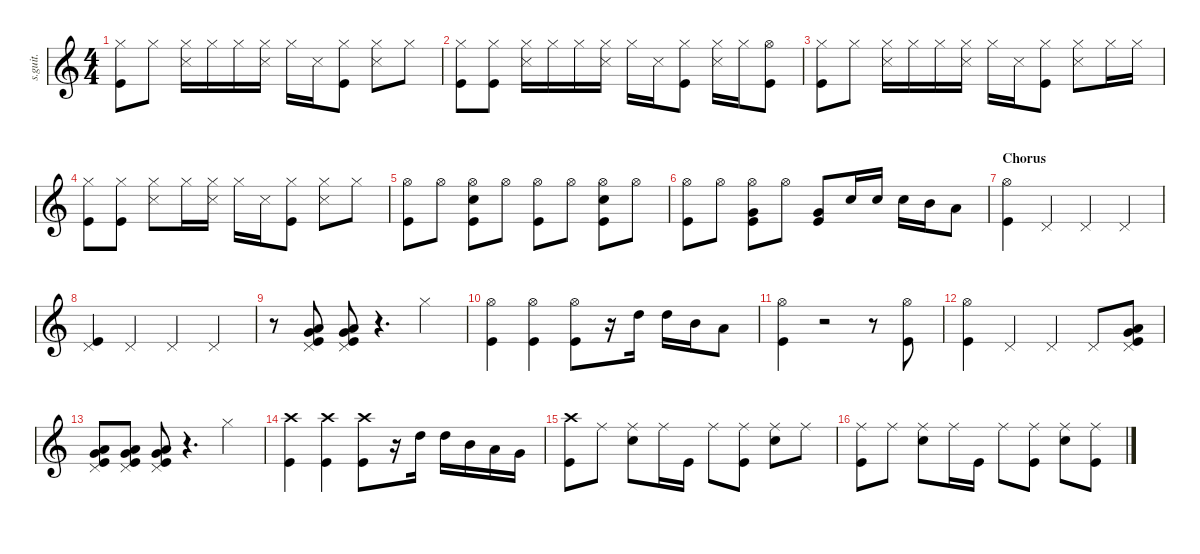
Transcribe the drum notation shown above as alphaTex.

\defaultSystemsLayout 4
\hideDynamics
\bracketExtendMode nobrackets
\track ("Ethan Torchio (Drums)" "s.guit.") {instrument percussion}
\staff {score}
\articulation defaults
\ts (4 4)
\tempo (134 hide)
\clef g2
\ks c
("Hi-Hat (closed)" "Kick (hit)").8{lyrics (0 "") lyrics (1 "") lyrics (2 "") lyrics (3 "") lyrics (4 "") dy ff} "Hi-Hat (closed)".8{lyrics (0 "") lyrics (1 "") lyrics (2 "") lyrics (3 "") lyrics (4 "")} ("Hi-Hat (closed)" "Metronome (hit)").16{lyrics (0 "") lyrics (1 "") lyrics (2 "") lyrics (3 "") lyrics (4 "")} "Hi-Hat (closed)".16{lyrics (0 "") lyrics (1 "") lyrics (2 "") lyrics (3 "") lyrics (4 "")} "Hi-Hat (closed)".16{lyrics (0 "") lyrics (1 "") lyrics (2 "") lyrics (3 "") lyrics (4 "")} ("Hi-Hat (closed)" "Metronome (hit)").16{lyrics (0 "") lyrics (1 "") lyrics (2 "") lyrics (3 "") lyrics (4 "")} "Hi-Hat (closed)".16{lyrics (0 "") lyrics (1 "") lyrics (2 "") lyrics (3 "") lyrics (4 "")} "Metronome (hit)".16{lyrics (0 "") lyrics (1 "") lyrics (2 "") lyrics (3 "") lyrics (4 "")} ("Kick (hit)" "Hi-Hat (closed)").8{lyrics (0 "") lyrics (1 "") lyrics (2 "") lyrics (3 "") lyrics (4 "")} ("Hi-Hat (closed)" "Metronome (hit)").8{lyrics (0 "") lyrics (1 "") lyrics (2 "") lyrics (3 "") lyrics (4 "")} "Hi-Hat (closed)".8{lyrics (0 "") lyrics (1 "") lyrics (2 "") lyrics (3 "") lyrics (4 "")} |
("Hi-Hat (closed)" "Kick (hit)").8{lyrics (0 "") lyrics (1 "") lyrics (2 "") lyrics (3 "") lyrics (4 "")} ("Hi-Hat (closed)" "Kick (hit)").8{lyrics (0 "") lyrics (1 "") lyrics (2 "") lyrics (3 "") lyrics (4 "")} ("Hi-Hat (closed)" "Metronome (hit)").16{lyrics (0 "") lyrics (1 "") lyrics (2 "") lyrics (3 "") lyrics (4 "")} "Hi-Hat (closed)".16{lyrics (0 "") lyrics (1 "") lyrics (2 "") lyrics (3 "") lyrics (4 "")} "Hi-Hat (closed)".16{lyrics (0 "") lyrics (1 "") lyrics (2 "") lyrics (3 "") lyrics (4 "")} ("Hi-Hat (closed)" "Metronome (hit)").16{lyrics (0 "") lyrics (1 "") lyrics (2 "") lyrics (3 "") lyrics (4 "")} "Hi-Hat (closed)".16{lyrics (0 "") lyrics (1 "") lyrics (2 "") lyrics (3 "") lyrics (4 "")} "Metronome (hit)".16{lyrics (0 "") lyrics (1 "") lyrics (2 "") lyrics (3 "") lyrics (4 "")} ("Kick (hit)" "Hi-Hat (closed)").8{lyrics (0 "") lyrics (1 "") lyrics (2 "") lyrics (3 "") lyrics (4 "")} ("Hi-Hat (closed)" "Metronome (hit)").16{lyrics (0 "") lyrics (1 "") lyrics (2 "") lyrics (3 "") lyrics (4 "")} "Hi-Hat (closed)".16{lyrics (0 "") lyrics (1 "") lyrics (2 "") lyrics (3 "") lyrics (4 "")} ("Hi-Hat (open)" "Kick (hit)").8{lyrics (0 "") lyrics (1 "") lyrics (2 "") lyrics (3 "") lyrics (4 "")} |
("Hi-Hat (closed)" "Kick (hit)").8{lyrics (0 "") lyrics (1 "") lyrics (2 "") lyrics (3 "") lyrics (4 "")} "Hi-Hat (closed)".8{lyrics (0 "") lyrics (1 "") lyrics (2 "") lyrics (3 "") lyrics (4 "")} ("Hi-Hat (closed)" "Metronome (hit)").16{lyrics (0 "") lyrics (1 "") lyrics (2 "") lyrics (3 "") lyrics (4 "")} "Hi-Hat (closed)".16{lyrics (0 "") lyrics (1 "") lyrics (2 "") lyrics (3 "") lyrics (4 "")} "Hi-Hat (closed)".16{lyrics (0 "") lyrics (1 "") lyrics (2 "") lyrics (3 "") lyrics (4 "")} ("Hi-Hat (closed)" "Metronome (hit)").16{lyrics (0 "") lyrics (1 "") lyrics (2 "") lyrics (3 "") lyrics (4 "")} "Hi-Hat (closed)".16{lyrics (0 "") lyrics (1 "") lyrics (2 "") lyrics (3 "") lyrics (4 "")} "Metronome (hit)".16{lyrics (0 "") lyrics (1 "") lyrics (2 "") lyrics (3 "") lyrics (4 "")} ("Kick (hit)" "Hi-Hat (closed)").8{lyrics (0 "") lyrics (1 "") lyrics (2 "") lyrics (3 "") lyrics (4 "")} ("Hi-Hat (closed)" "Metronome (hit)").8{lyrics (0 "") lyrics (1 "") lyrics (2 "") lyrics (3 "") lyrics (4 "")} "Hi-Hat (closed)".16{lyrics (0 "") lyrics (1 "") lyrics (2 "") lyrics (3 "") lyrics (4 "")} "Hi-Hat (closed)".16{lyrics (0 "") lyrics (1 "") lyrics (2 "") lyrics (3 "") lyrics (4 "")} |
("Hi-Hat (closed)" "Kick (hit)").8{lyrics (0 "") lyrics (1 "") lyrics (2 "") lyrics (3 "") lyrics (4 "")} ("Hi-Hat (closed)" "Kick (hit)").8{lyrics (0 "") lyrics (1 "") lyrics (2 "") lyrics (3 "") lyrics (4 "")} ("Hi-Hat (closed)" "Metronome (hit)").8{lyrics (0 "") lyrics (1 "") lyrics (2 "") lyrics (3 "") lyrics (4 "")} "Hi-Hat (closed)".16{lyrics (0 "") lyrics (1 "") lyrics (2 "") lyrics (3 "") lyrics (4 "")} ("Hi-Hat (closed)" "Metronome (hit)").16{lyrics (0 "") lyrics (1 "") lyrics (2 "") lyrics (3 "") lyrics (4 "")} "Hi-Hat (closed)".16{lyrics (0 "") lyrics (1 "") lyrics (2 "") lyrics (3 "") lyrics (4 "")} "Metronome (hit)".16{lyrics (0 "") lyrics (1 "") lyrics (2 "") lyrics (3 "") lyrics (4 "")} ("Kick (hit)" "Hi-Hat (closed)").8{lyrics (0 "") lyrics (1 "") lyrics (2 "") lyrics (3 "") lyrics (4 "")} ("Hi-Hat (closed)" "Metronome (hit)").8{lyrics (0 "") lyrics (1 "") lyrics (2 "") lyrics (3 "") lyrics (4 "")} "Hi-Hat (closed)".8{lyrics (0 "") lyrics (1 "") lyrics (2 "") lyrics (3 "") lyrics (4 "")} |
("Hi-Hat (open)" "Kick (hit)").8{lyrics (0 "") lyrics (1 "") lyrics (2 "") lyrics (3 "") lyrics (4 "")} "Hi-Hat (open)".8{lyrics (0 "") lyrics (1 "") lyrics (2 "") lyrics (3 "") lyrics (4 "")} ("Hi-Hat (open)" "Kick (hit)" "Snare (hit) 2").8{lyrics (0 "") lyrics (1 "") lyrics (2 "") lyrics (3 "") lyrics (4 "")} "Hi-Hat (open)".8{lyrics (0 "") lyrics (1 "") lyrics (2 "") lyrics (3 "") lyrics (4 "")} ("Hi-Hat (open)" "Kick (hit)").8{lyrics (0 "") lyrics (1 "") lyrics (2 "") lyrics (3 "") lyrics (4 "")} "Hi-Hat (open)".8{lyrics (0 "") lyrics (1 "") lyrics (2 "") lyrics (3 "") lyrics (4 "")} ("Hi-Hat (open)" "Kick (hit)" "Snare (hit) 2").8{lyrics (0 "") lyrics (1 "") lyrics (2 "") lyrics (3 "") lyrics (4 "")} "Hi-Hat (open)".8{lyrics (0 "") lyrics (1 "") lyrics (2 "") lyrics (3 "") lyrics (4 "")} |
("Hi-Hat (open)" "Kick (hit)").8{lyrics (0 "") lyrics (1 "") lyrics (2 "") lyrics (3 "") lyrics (4 "")} "Hi-Hat (open)".8{lyrics (0 "") lyrics (1 "") lyrics (2 "") lyrics (3 "") lyrics (4 "")} ("Hi-Hat (open)" "Kick (hit)" "Very Low Tom (hit)").8{lyrics (0 "") lyrics (1 "") lyrics (2 "") lyrics (3 "") lyrics (4 "")} "Hi-Hat (open)".8{lyrics (0 "") lyrics (1 "") lyrics (2 "") lyrics (3 "") lyrics (4 "")} ("Kick (hit)" "Very Low Tom (hit)").8{lyrics (0 "") lyrics (1 "") lyrics (2 "") lyrics (3 "") lyrics (4 "")} "Snare (hit) 2".16{lyrics (0 "") lyrics (1 "") lyrics (2 "") lyrics (3 "") lyrics (4 "")} "Snare (hit) 2".16{lyrics (0 "") lyrics (1 "") lyrics (2 "") lyrics (3 "") lyrics (4 "")} "Snare (hit) 2".16{lyrics (0 "") lyrics (1 "") lyrics (2 "") lyrics (3 "") lyrics (4 "")} "Mid Tom (hit)".16{lyrics (0 "") lyrics (1 "") lyrics (2 "") lyrics (3 "") lyrics (4 "")} "Low Tom (hit)".8{lyrics (0 "") lyrics (1 "") lyrics (2 "") lyrics (3 "") lyrics (4 "")} |
\section ("" "Chorus")
("Kick (hit)" "Hi-Hat (open)").4{lyrics (0 "") lyrics (1 "") lyrics (2 "") lyrics (3 "") lyrics (4 "")} "Pedal Hi-Hat (hit)".4{lyrics (0 "") lyrics (1 "") lyrics (2 "") lyrics (3 "") lyrics (4 "")} "Pedal Hi-Hat (hit)".4{lyrics (0 "") lyrics (1 "") lyrics (2 "") lyrics (3 "") lyrics (4 "")} "Pedal Hi-Hat (hit)".4{lyrics (0 "") lyrics (1 "") lyrics (2 "") lyrics (3 "") lyrics (4 "")} |
("Pedal Hi-Hat (hit)" "Kick (hit)").4{lyrics (0 "") lyrics (1 "") lyrics (2 "") lyrics (3 "") lyrics (4 "")} "Pedal Hi-Hat (hit)".4{lyrics (0 "") lyrics (1 "") lyrics (2 "") lyrics (3 "") lyrics (4 "")} "Pedal Hi-Hat (hit)".4{lyrics (0 "") lyrics (1 "") lyrics (2 "") lyrics (3 "") lyrics (4 "")} "Pedal Hi-Hat (hit)".4{lyrics (0 "") lyrics (1 "") lyrics (2 "") lyrics (3 "") lyrics (4 "")} |
r.8 ("Low Tom (hit)" "Very Low Tom (hit)" "Kick (hit)" "Pedal Hi-Hat (hit)").8{lyrics (0 "") lyrics (1 "") lyrics (2 "") lyrics (3 "") lyrics (4 "")} ("Low Tom (hit)" "Very Low Tom (hit)" "Kick (hit)" "Pedal Hi-Hat (hit)").8{lyrics (0 "") lyrics (1 "") lyrics (2 "") lyrics (3 "") lyrics (4 "")} r.4{d} "Hi-Hat (closed)".4{lyrics (0 "") lyrics (1 "") lyrics (2 "") lyrics (3 "") lyrics (4 "")} |
("Kick (hit)" "Hi-Hat (open)").4{lyrics (0 "") lyrics (1 "") lyrics (2 "") lyrics (3 "") lyrics (4 "")} ("Kick (hit)" "Hi-Hat (open)").4{lyrics (0 "") lyrics (1 "") lyrics (2 "") lyrics (3 "") lyrics (4 "")} ("Kick (hit)" "Hi-Hat (open)").8{lyrics (0 "") lyrics (1 "") lyrics (2 "") lyrics (3 "") lyrics (4 "")} r.16 "High Tom (hit)".16{lyrics (0 "") lyrics (1 "") lyrics (2 "") lyrics (3 "") lyrics (4 "")} "High Tom (hit)".16{lyrics (0 "") lyrics (1 "") lyrics (2 "") lyrics (3 "") lyrics (4 "")} "Mid Tom (hit)".16{lyrics (0 "") lyrics (1 "") lyrics (2 "") lyrics (3 "") lyrics (4 "")} "Low Tom (hit)".8{lyrics (0 "") lyrics (1 "") lyrics (2 "") lyrics (3 "") lyrics (4 "")} |
("Kick (hit)" "Hi-Hat (open)").4{lyrics (0 "") lyrics (1 "") lyrics (2 "") lyrics (3 "") lyrics (4 "")} r.2 r.8 ("Hi-Hat (open)" "Kick (hit)").8{lyrics (0 "") lyrics (1 "") lyrics (2 "") lyrics (3 "") lyrics (4 "")} |
("Hi-Hat (open)" "Kick (hit)").4{lyrics (0 "") lyrics (1 "") lyrics (2 "") lyrics (3 "") lyrics (4 "")} "Pedal Hi-Hat (hit)".4{lyrics (0 "") lyrics (1 "") lyrics (2 "") lyrics (3 "") lyrics (4 "")} "Pedal Hi-Hat (hit)".4{lyrics (0 "") lyrics (1 "") lyrics (2 "") lyrics (3 "") lyrics (4 "")} "Pedal Hi-Hat (hit)".8{lyrics (0 "") lyrics (1 "") lyrics (2 "") lyrics (3 "") lyrics (4 "")} ("Pedal Hi-Hat (hit)" "Kick (hit)" "Very Low Tom (hit)" "Low Tom (hit)").8{lyrics (0 "") lyrics (1 "") lyrics (2 "") lyrics (3 "") lyrics (4 "")} |
("Kick (hit)" "Pedal Hi-Hat (hit)" "Very Low Tom (hit)" "Low Tom (hit)").8{lyrics (0 "") lyrics (1 "") lyrics (2 "") lyrics (3 "") lyrics (4 "")} ("Kick (hit)" "Pedal Hi-Hat (hit)" "Very Low Tom (hit)" "Low Tom (hit)").8{lyrics (0 "") lyrics (1 "") lyrics (2 "") lyrics (3 "") lyrics (4 "")} ("Kick (hit)" "Pedal Hi-Hat (hit)" "Very Low Tom (hit)" "Low Tom (hit)").8{lyrics (0 "") lyrics (1 "") lyrics (2 "") lyrics (3 "") lyrics (4 "")} r.4{d} "Hi-Hat (closed)".4{lyrics (0 "") lyrics (1 "") lyrics (2 "") lyrics (3 "") lyrics (4 "")} |
("Crash high (hit)" "Kick (hit)").4{lyrics (0 "") lyrics (1 "") lyrics (2 "") lyrics (3 "") lyrics (4 "")} ("Crash high (hit)" "Kick (hit)").4{lyrics (0 "") lyrics (1 "") lyrics (2 "") lyrics (3 "") lyrics (4 "")} ("Kick (hit)" "Crash high (hit)").8{lyrics (0 "") lyrics (1 "") lyrics (2 "") lyrics (3 "") lyrics (4 "")} r.16 "High Tom (hit)".16{lyrics (0 "") lyrics (1 "") lyrics (2 "") lyrics (3 "") lyrics (4 "")} "High Tom (hit)".16{lyrics (0 "") lyrics (1 "") lyrics (2 "") lyrics (3 "") lyrics (4 "")} "Mid Tom (hit)".16{lyrics (0 "") lyrics (1 "") lyrics (2 "") lyrics (3 "") lyrics (4 "")} "Low Tom (hit)".16{lyrics (0 "") lyrics (1 "") lyrics (2 "") lyrics (3 "") lyrics (4 "")} "Very Low Tom (hit)".16{lyrics (0 "") lyrics (1 "") lyrics (2 "") lyrics (3 "") lyrics (4 "")} |
("Crash high (hit)" "Kick (hit)").8{lyrics (0 "") lyrics (1 "") lyrics (2 "") lyrics (3 "") lyrics (4 "")} "Ride (middle)".8{lyrics (0 "") lyrics (1 "") lyrics (2 "") lyrics (3 "") lyrics (4 "")} ("Ride (middle)" "Snare (hit) 2").8{lyrics (0 "") lyrics (1 "") lyrics (2 "") lyrics (3 "") lyrics (4 "")} "Ride (middle)".16{lyrics (0 "") lyrics (1 "") lyrics (2 "") lyrics (3 "") lyrics (4 "")} "Kick (hit)".16{lyrics (0 "") lyrics (1 "") lyrics (2 "") lyrics (3 "") lyrics (4 "")} "Ride (middle)".8{lyrics (0 "") lyrics (1 "") lyrics (2 "") lyrics (3 "") lyrics (4 "")} ("Ride (middle)" "Kick (hit)").8{lyrics (0 "") lyrics (1 "") lyrics (2 "") lyrics (3 "") lyrics (4 "")} ("Ride (middle)" "Snare (hit) 2").8{lyrics (0 "") lyrics (1 "") lyrics (2 "") lyrics (3 "") lyrics (4 "")} "Ride (middle)".8{lyrics (0 "") lyrics (1 "") lyrics (2 "") lyrics (3 "") lyrics (4 "")} |
("Ride (middle)" "Kick (hit)").8{lyrics (0 "") lyrics (1 "") lyrics (2 "") lyrics (3 "") lyrics (4 "")} "Ride (middle)".8{lyrics (0 "") lyrics (1 "") lyrics (2 "") lyrics (3 "") lyrics (4 "")} ("Ride (middle)" "Snare (hit) 2").8{lyrics (0 "") lyrics (1 "") lyrics (2 "") lyrics (3 "") lyrics (4 "")} "Ride (middle)".16{lyrics (0 "") lyrics (1 "") lyrics (2 "") lyrics (3 "") lyrics (4 "")} "Kick (hit)".16{lyrics (0 "") lyrics (1 "") lyrics (2 "") lyrics (3 "") lyrics (4 "")} "Ride (middle)".8{lyrics (0 "") lyrics (1 "") lyrics (2 "") lyrics (3 "") lyrics (4 "")} ("Ride (middle)" "Kick (hit)").8{lyrics (0 "") lyrics (1 "") lyrics (2 "") lyrics (3 "") lyrics (4 "")} ("Ride (middle)" "Snare (hit) 2").8{lyrics (0 "") lyrics (1 "") lyrics (2 "") lyrics (3 "") lyrics (4 "")} ("Ride (middle)" "Kick (hit)").8{lyrics (0 "") lyrics (1 "") lyrics (2 "") lyrics (3 "") lyrics (4 "")}
